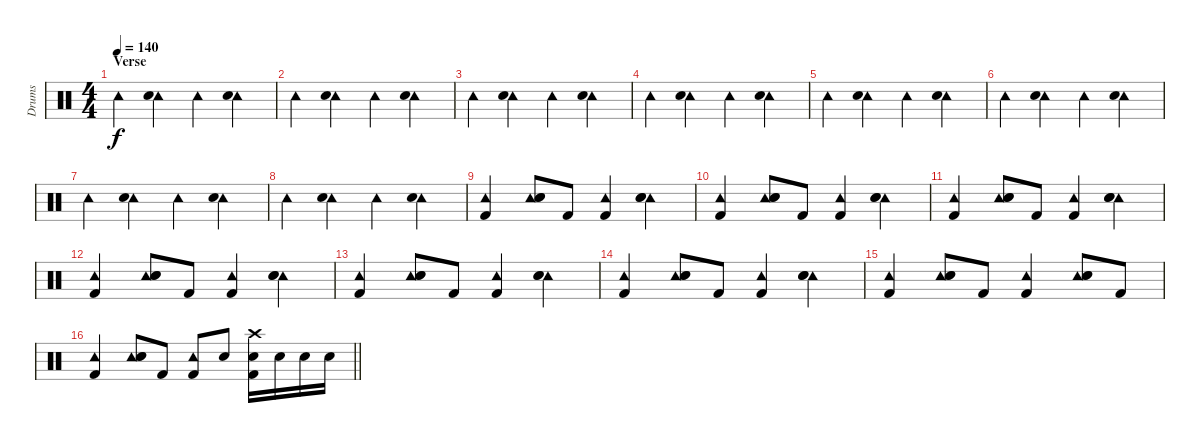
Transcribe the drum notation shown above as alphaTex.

\track ("Drums" "Drums") {instrument percussion}
\staff {score}
\articulation defaults
\ts (4 4)
\section ("" "Verse")
\tempo 140
\clef neutral
\ks c "Tambourine (hit)".4{dy f}
("Tambourine (hit)" "Hand Clap (hit)").4 "Tambourine (hit)".4 ("Tambourine (hit)" "Hand Clap (hit)").4 |
"Tambourine (hit)".4 ("Tambourine (hit)" "Hand Clap (hit)").4 "Tambourine (hit)".4 ("Tambourine (hit)" "Hand Clap (hit)").4 |
"Tambourine (hit)".4 ("Tambourine (hit)" "Hand Clap (hit)").4 "Tambourine (hit)".4 ("Tambourine (hit)" "Hand Clap (hit)").4 |
"Tambourine (hit)".4 ("Tambourine (hit)" "Hand Clap (hit)").4 "Tambourine (hit)".4 ("Tambourine (hit)" "Hand Clap (hit)").4 |
"Tambourine (hit)".4 ("Tambourine (hit)" "Hand Clap (hit)").4 "Tambourine (hit)".4 ("Tambourine (hit)" "Hand Clap (hit)").4 |
"Tambourine (hit)".4 ("Tambourine (hit)" "Hand Clap (hit)").4 "Tambourine (hit)".4 ("Tambourine (hit)" "Hand Clap (hit)").4 |
"Tambourine (hit)".4 ("Tambourine (hit)" "Hand Clap (hit)").4 "Tambourine (hit)".4 ("Tambourine (hit)" "Hand Clap (hit)").4 |
"Tambourine (hit)".4 ("Tambourine (hit)" "Hand Clap (hit)").4 "Tambourine (hit)".4 ("Tambourine (hit)" "Hand Clap (hit)").4 |
("Tambourine (hit)" "Kick (hit) 2").4 ("Tambourine (hit)" "Hand Clap (hit)" "Electric Snare (hit)").8 "Kick (hit) 2".8 ("Tambourine (hit)" "Kick (hit) 2").4 ("Tambourine (hit)" "Hand Clap (hit)" "Electric Snare (hit)").4 |
("Tambourine (hit)" "Kick (hit) 2").4 ("Tambourine (hit)" "Hand Clap (hit)" "Electric Snare (hit)").8 "Kick (hit) 2".8 ("Tambourine (hit)" "Kick (hit) 2").4 ("Tambourine (hit)" "Hand Clap (hit)" "Electric Snare (hit)").4 |
("Tambourine (hit)" "Kick (hit) 2").4 ("Tambourine (hit)" "Hand Clap (hit)" "Electric Snare (hit)").8 "Kick (hit) 2".8 ("Tambourine (hit)" "Kick (hit) 2").4 ("Tambourine (hit)" "Hand Clap (hit)" "Electric Snare (hit)").4 |
("Tambourine (hit)" "Kick (hit) 2").4 ("Tambourine (hit)" "Hand Clap (hit)" "Electric Snare (hit)").8 "Kick (hit) 2".8 ("Tambourine (hit)" "Kick (hit) 2").4 ("Tambourine (hit)" "Hand Clap (hit)" "Electric Snare (hit)").4 |
("Tambourine (hit)" "Kick (hit) 2").4 ("Tambourine (hit)" "Hand Clap (hit)" "Electric Snare (hit)").8 "Kick (hit) 2".8 ("Tambourine (hit)" "Kick (hit) 2").4 ("Tambourine (hit)" "Hand Clap (hit)" "Electric Snare (hit)").4 |
("Tambourine (hit)" "Kick (hit) 2").4 ("Tambourine (hit)" "Hand Clap (hit)" "Electric Snare (hit)").8 "Kick (hit) 2".8 ("Tambourine (hit)" "Kick (hit) 2").4 ("Tambourine (hit)" "Hand Clap (hit)" "Electric Snare (hit)").4 |
("Tambourine (hit)" "Kick (hit) 2").4 ("Tambourine (hit)" "Hand Clap (hit)" "Electric Snare (hit)").8 "Kick (hit) 2".8 ("Tambourine (hit)" "Kick (hit) 2").4 ("Tambourine (hit)" "Hand Clap (hit)" "Electric Snare (hit)").8 "Kick (hit) 2".8 |
\barLineRight lightlight
("Tambourine (hit)" "Kick (hit) 2").4 ("Tambourine (hit)" "Hand Clap (hit)" "Electric Snare (hit)").8 "Kick (hit) 2".8 ("Tambourine (hit)" "Kick (hit) 2").8 "Electric Snare (hit)".8 ("Crash high (hit)" "Hand Clap (hit)" "Kick (hit) 2").16 "Electric Snare (hit)".16 "Electric Snare (hit)".16 "Electric Snare (hit)".16
